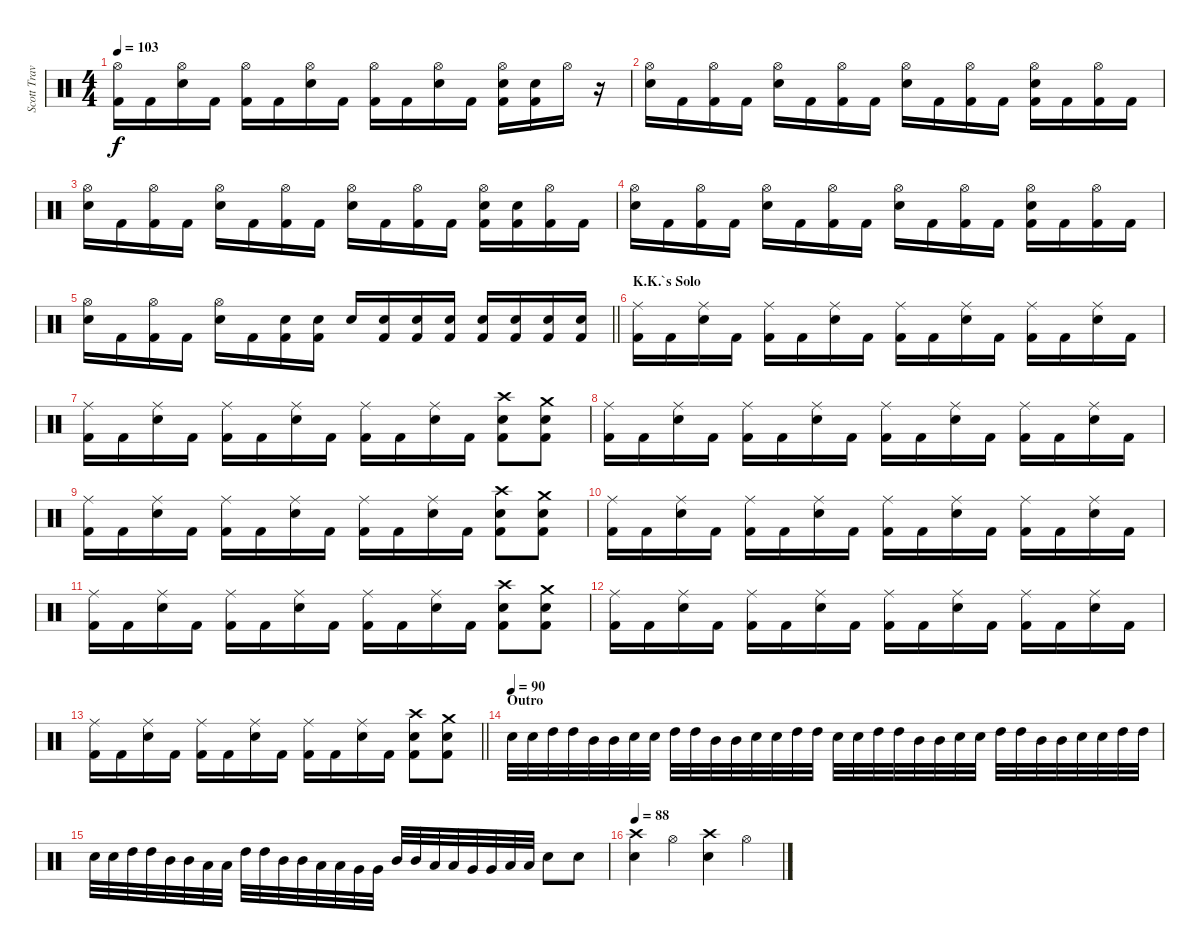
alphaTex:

\track ("Scott Travis" "Scott Trav") {instrument percussion}
\staff {score}
\articulation defaults
\ts (4 4)
\tempo 103
\clef neutral
\ks c
("Hi-Hat (open)" "Kick (hit) 2").16{dy f} "Kick (hit) 2".16 ("Hi-Hat (open)" "Snare (hit) 2").16 "Kick (hit) 2".16 ("Hi-Hat (open)" "Kick (hit) 2").16 "Kick (hit) 2".16 ("Hi-Hat (open)" "Snare (hit) 2").16 "Kick (hit) 2".16 ("Hi-Hat (open)" "Kick (hit) 2").16 "Kick (hit) 2".16 ("Hi-Hat (open)" "Snare (hit) 2").16 "Kick (hit) 2".16 ("Hi-Hat (open)" "Snare (hit) 2" "Kick (hit) 2").16 ("Snare (hit) 2" "Kick (hit) 2").16 "Hi-Hat (open)".16 r.16 |
("Hi-Hat (open)" "Snare (hit) 2").16 "Kick (hit) 2".16 ("Hi-Hat (open)" "Kick (hit) 2").16 "Kick (hit) 2".16 ("Hi-Hat (open)" "Snare (hit) 2").16 "Kick (hit) 2".16 ("Hi-Hat (open)" "Kick (hit) 2").16 "Kick (hit) 2".16 ("Hi-Hat (open)" "Snare (hit) 2").16 "Kick (hit) 2".16 ("Hi-Hat (open)" "Kick (hit) 2").16 "Kick (hit) 2".16 ("Hi-Hat (open)" "Snare (hit) 2" "Kick (hit) 2").16 "Kick (hit) 2".16 ("Hi-Hat (open)" "Kick (hit) 2").16 "Kick (hit) 2".16 |
("Hi-Hat (open)" "Snare (hit) 2").16 "Kick (hit) 2".16 ("Hi-Hat (open)" "Kick (hit) 2").16 "Kick (hit) 2".16 ("Hi-Hat (open)" "Snare (hit) 2").16 "Kick (hit) 2".16 ("Hi-Hat (open)" "Kick (hit) 2").16 "Kick (hit) 2".16 ("Hi-Hat (open)" "Snare (hit) 2").16 "Kick (hit) 2".16 ("Hi-Hat (open)" "Kick (hit) 2").16 "Kick (hit) 2".16 ("Hi-Hat (open)" "Snare (hit) 2" "Kick (hit) 2").16 ("Snare (hit) 2" "Kick (hit) 2").16 ("Hi-Hat (open)" "Kick (hit) 2").16 "Kick (hit) 2".16 |
("Hi-Hat (open)" "Snare (hit) 2").16 "Kick (hit) 2".16 ("Hi-Hat (open)" "Kick (hit) 2").16 "Kick (hit) 2".16 ("Hi-Hat (open)" "Snare (hit) 2").16 "Kick (hit) 2".16 ("Hi-Hat (open)" "Kick (hit) 2").16 "Kick (hit) 2".16 ("Hi-Hat (open)" "Snare (hit) 2").16 "Kick (hit) 2".16 ("Hi-Hat (open)" "Kick (hit) 2").16 "Kick (hit) 2".16 ("Hi-Hat (open)" "Snare (hit) 2" "Kick (hit) 2").16 "Kick (hit) 2".16 ("Hi-Hat (open)" "Kick (hit) 2").16 "Kick (hit) 2".16 |
\barLineRight lightlight
("Hi-Hat (open)" "Snare (hit) 2").16 "Kick (hit) 2".16 ("Hi-Hat (open)" "Kick (hit) 2").16 "Kick (hit) 2".16 ("Hi-Hat (open)" "Snare (hit) 2").16 "Kick (hit) 2".16 ("Snare (hit) 2" "Kick (hit) 2").16 ("Snare (hit) 2" "Kick (hit) 2").16 "Snare (hit) 2".16 ("Snare (hit) 2" "Kick (hit) 2").16 ("Snare (hit) 2" "Kick (hit) 2").16 ("Snare (hit) 2" "Kick (hit) 2").16 ("Snare (hit) 2" "Kick (hit) 2").16 ("Snare (hit) 2" "Kick (hit) 2").16 ("Snare (hit) 2" "Kick (hit) 2").16 ("Snare (hit) 2" "Kick (hit) 2").16 |
\section ("" "K.K.`s Solo")
("Ride (middle)" "Kick (hit) 2").16 "Kick (hit) 2".16 ("Ride (middle)" "Snare (hit) 2").16 "Kick (hit) 2".16 ("Ride (middle)" "Kick (hit) 2").16 "Kick (hit) 2".16 ("Ride (middle)" "Snare (hit) 2").16 "Kick (hit) 2".16 ("Ride (middle)" "Kick (hit) 2").16 "Kick (hit) 2".16 ("Ride (middle)" "Snare (hit) 2").16 "Kick (hit) 2".16 ("Ride (middle)" "Kick (hit) 2").16 "Kick (hit) 2".16 ("Ride (middle)" "Snare (hit) 2").16 "Kick (hit) 2".16 |
("Ride (middle)" "Kick (hit) 2").16 "Kick (hit) 2".16 ("Ride (middle)" "Snare (hit) 2").16 "Kick (hit) 2".16 ("Ride (middle)" "Kick (hit) 2").16 "Kick (hit) 2".16 ("Ride (middle)" "Snare (hit) 2").16 "Kick (hit) 2".16 ("Ride (middle)" "Kick (hit) 2").16 "Kick (hit) 2".16 ("Ride (middle)" "Snare (hit) 2").16 "Kick (hit) 2".16 ("Crash high (hit)" "Snare (hit) 2" "Kick (hit) 2").8 ("Crash medium (hit)" "Snare (hit) 2" "Kick (hit) 2").8 |
("Ride (middle)" "Kick (hit) 2").16 "Kick (hit) 2".16 ("Ride (middle)" "Snare (hit) 2").16 "Kick (hit) 2".16 ("Ride (middle)" "Kick (hit) 2").16 "Kick (hit) 2".16 ("Ride (middle)" "Snare (hit) 2").16 "Kick (hit) 2".16 ("Ride (middle)" "Kick (hit) 2").16 "Kick (hit) 2".16 ("Ride (middle)" "Snare (hit) 2").16 "Kick (hit) 2".16 ("Ride (middle)" "Kick (hit) 2").16 "Kick (hit) 2".16 ("Ride (middle)" "Snare (hit) 2").16 "Kick (hit) 2".16 |
("Ride (middle)" "Kick (hit) 2").16 "Kick (hit) 2".16 ("Ride (middle)" "Snare (hit) 2").16 "Kick (hit) 2".16 ("Ride (middle)" "Kick (hit) 2").16 "Kick (hit) 2".16 ("Ride (middle)" "Snare (hit) 2").16 "Kick (hit) 2".16 ("Ride (middle)" "Kick (hit) 2").16 "Kick (hit) 2".16 ("Ride (middle)" "Snare (hit) 2").16 "Kick (hit) 2".16 ("Crash high (hit)" "Snare (hit) 2" "Kick (hit) 2").8 ("Crash medium (hit)" "Snare (hit) 2" "Kick (hit) 2").8 |
("Ride (middle)" "Kick (hit) 2").16 "Kick (hit) 2".16 ("Ride (middle)" "Snare (hit) 2").16 "Kick (hit) 2".16 ("Ride (middle)" "Kick (hit) 2").16 "Kick (hit) 2".16 ("Ride (middle)" "Snare (hit) 2").16 "Kick (hit) 2".16 ("Ride (middle)" "Kick (hit) 2").16 "Kick (hit) 2".16 ("Ride (middle)" "Snare (hit) 2").16 "Kick (hit) 2".16 ("Ride (middle)" "Kick (hit) 2").16 "Kick (hit) 2".16 ("Ride (middle)" "Snare (hit) 2").16 "Kick (hit) 2".16 |
("Ride (middle)" "Kick (hit) 2").16 "Kick (hit) 2".16 ("Ride (middle)" "Snare (hit) 2").16 "Kick (hit) 2".16 ("Ride (middle)" "Kick (hit) 2").16 "Kick (hit) 2".16 ("Ride (middle)" "Snare (hit) 2").16 "Kick (hit) 2".16 ("Ride (middle)" "Kick (hit) 2").16 "Kick (hit) 2".16 ("Ride (middle)" "Snare (hit) 2").16 "Kick (hit) 2".16 ("Crash high (hit)" "Snare (hit) 2" "Kick (hit) 2").8 ("Crash medium (hit)" "Snare (hit) 2" "Kick (hit) 2").8 |
("Ride (middle)" "Kick (hit) 2").16 "Kick (hit) 2".16 ("Ride (middle)" "Snare (hit) 2").16 "Kick (hit) 2".16 ("Ride (middle)" "Kick (hit) 2").16 "Kick (hit) 2".16 ("Ride (middle)" "Snare (hit) 2").16 "Kick (hit) 2".16 ("Ride (middle)" "Kick (hit) 2").16 "Kick (hit) 2".16 ("Ride (middle)" "Snare (hit) 2").16 "Kick (hit) 2".16 ("Ride (middle)" "Kick (hit) 2").16 "Kick (hit) 2".16 ("Ride (middle)" "Snare (hit) 2").16 "Kick (hit) 2".16 |
\barLineRight lightlight
("Ride (middle)" "Kick (hit) 2").16 "Kick (hit) 2".16 ("Ride (middle)" "Snare (hit) 2").16 "Kick (hit) 2".16 ("Ride (middle)" "Kick (hit) 2").16 "Kick (hit) 2".16 ("Ride (middle)" "Snare (hit) 2").16 "Kick (hit) 2".16 ("Ride (middle)" "Kick (hit) 2").16 "Kick (hit) 2".16 ("Ride (middle)" "Snare (hit) 2").16 "Kick (hit) 2".16 ("Crash high (hit)" "Snare (hit) 2" "Kick (hit) 2").8 ("Crash medium (hit)" "Snare (hit) 2" "Kick (hit) 2").8 |
\section ("" "Outro")
\tempo (90)
"Snare (hit) 2".32 "Snare (hit) 2".32 "High Tom (hit)".32 "High Tom (hit)".32 "Mid Tom (hit)".32 "Mid Tom (hit)".32 "Snare (hit) 2".32 "Snare (hit) 2".32 "High Tom (hit)".32 "High Tom (hit)".32 "Mid Tom (hit)".32 "Mid Tom (hit)".32 "Snare (hit) 2".32 "Snare (hit) 2".32 "High Tom (hit)".32 "High Tom (hit)".32 "Snare (hit) 2".32 "Snare (hit) 2".32 "High Tom (hit)".32 "High Tom (hit)".32 "Mid Tom (hit)".32 "Mid Tom (hit)".32 "Snare (hit) 2".32 "Snare (hit) 2".32 "High Tom (hit)".32 "High Tom (hit)".32 "Mid Tom (hit)".32 "Mid Tom (hit)".32 "Snare (hit) 2".32 "Snare (hit) 2".32 "High Tom (hit)".32 "High Tom (hit)".32 |
"Snare (hit) 2".32 "Snare (hit) 2".32 "High Tom (hit)".32 "High Tom (hit)".32 "Mid Tom (hit)".32 "Mid Tom (hit)".32 "Low Tom (hit)".32 "Low Tom (hit)".32 "High Tom (hit)".32 "High Tom (hit)".32 "Mid Tom (hit)".32 "Mid Tom (hit)".32 "Low Tom (hit)".32 "Low Tom (hit)".32 "Very Low Tom (hit)".32 "Very Low Tom (hit)".32 "Mid Tom (hit)".32 "Mid Tom (hit)".32 "Low Tom (hit)".32 "Low Tom (hit)".32 "Very Low Tom (hit)".32 "Very Low Tom (hit)".32 "Low Floor Tom (hit)".32 "Low Floor Tom (hit)".32 "Snare (hit) 2".8 "Snare (hit) 2".8 |
\tempo 88
("Crash high (hit)" "Snare (hit) 2").4 "Hi-Hat (open)".4 ("Crash high (hit)" "Snare (hit) 2").4 "Hi-Hat (open)".4
